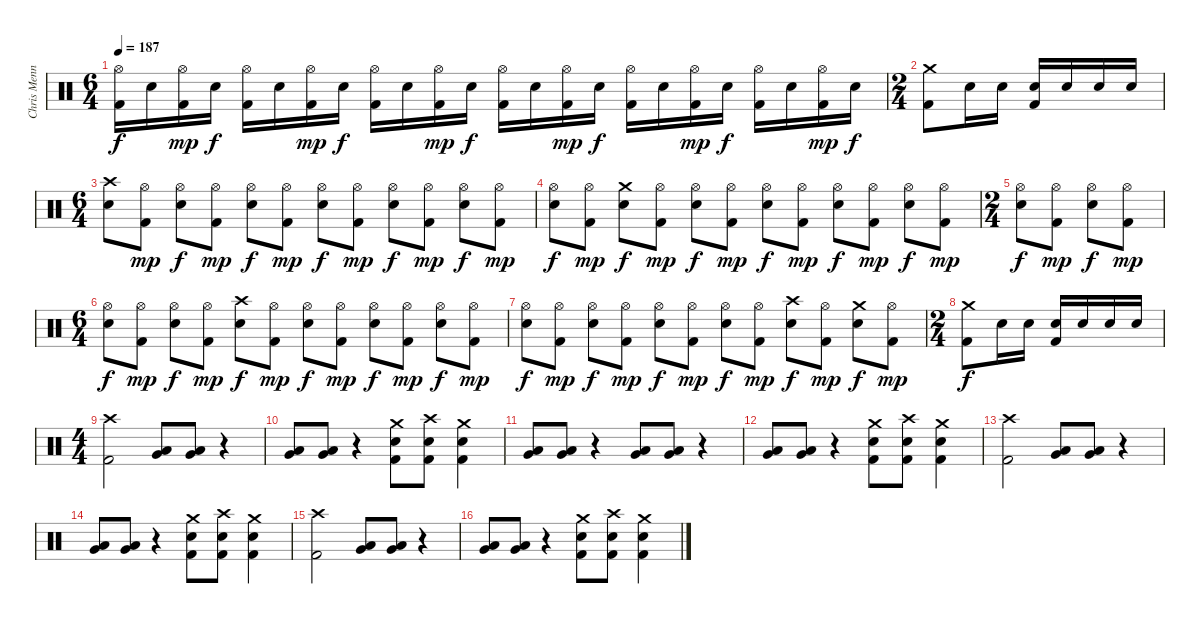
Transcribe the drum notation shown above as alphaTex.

\track ("Chris Menning" "Chris Menn") {instrument percussion}
\staff {score}
\articulation defaults
\ts (6 4)
\tempo 187
\clef neutral
\ks c
("Hi-Hat (open)" "Kick (hit) 2").16{dy f} "Electric Snare (hit)".16 ("Hi-Hat (open)" "Kick (hit) 2").16{dy mp} "Electric Snare (hit)".16{dy f} ("Hi-Hat (open)" "Kick (hit) 2").16 "Electric Snare (hit)".16 ("Hi-Hat (open)" "Kick (hit) 2").16{dy mp} "Electric Snare (hit)".16{dy f} ("Hi-Hat (open)" "Kick (hit) 2").16 "Electric Snare (hit)".16 ("Hi-Hat (open)" "Kick (hit) 2").16{dy mp} "Electric Snare (hit)".16{dy f} ("Hi-Hat (open)" "Kick (hit) 2").16 "Electric Snare (hit)".16 ("Hi-Hat (open)" "Kick (hit) 2").16{dy mp} "Electric Snare (hit)".16{dy f} ("Hi-Hat (open)" "Kick (hit) 2").16 "Electric Snare (hit)".16 ("Hi-Hat (open)" "Kick (hit) 2").16{dy mp} "Electric Snare (hit)".16{dy f} ("Hi-Hat (open)" "Kick (hit) 2").16 "Electric Snare (hit)".16 ("Hi-Hat (open)" "Kick (hit) 2").16{dy mp} "Electric Snare (hit)".16{dy f} |
\ts (2 4)
("Crash medium (hit)" "Kick (hit) 2").8 "Electric Snare (hit)".16 "Electric Snare (hit)".16 ("Electric Snare (hit)" "Kick (hit) 2").16 "Electric Snare (hit)".16 "Electric Snare (hit)".16 "Electric Snare (hit)".16 |
\ts (6 4)
("Crash high (hit)" "Electric Snare (hit)").8 ("Hi-Hat (open)" "Kick (hit) 2").8{dy mp} ("Hi-Hat (open)" "Electric Snare (hit)").8{dy f} ("Hi-Hat (open)" "Kick (hit) 2").8{dy mp} ("Hi-Hat (open)" "Electric Snare (hit)").8{dy f} ("Hi-Hat (open)" "Kick (hit) 2").8{dy mp} ("Hi-Hat (open)" "Electric Snare (hit)").8{dy f} ("Hi-Hat (open)" "Kick (hit) 2").8{dy mp} ("Hi-Hat (open)" "Electric Snare (hit)").8{dy f} ("Hi-Hat (open)" "Kick (hit) 2").8{dy mp} ("Hi-Hat (open)" "Electric Snare (hit)").8{dy f} ("Hi-Hat (open)" "Kick (hit) 2").8{dy mp} |
("Hi-Hat (open)" "Electric Snare (hit)").8{dy f} ("Hi-Hat (open)" "Kick (hit) 2").8{dy mp} ("Crash medium (hit)" "Electric Snare (hit)").8{dy f} ("Hi-Hat (open)" "Kick (hit) 2").8{dy mp} ("Hi-Hat (open)" "Electric Snare (hit)").8{dy f} ("Hi-Hat (open)" "Kick (hit) 2").8{dy mp} ("Hi-Hat (open)" "Electric Snare (hit)").8{dy f} ("Hi-Hat (open)" "Kick (hit) 2").8{dy mp} ("Hi-Hat (open)" "Electric Snare (hit)").8{dy f} ("Hi-Hat (open)" "Kick (hit) 2").8{dy mp} ("Hi-Hat (open)" "Electric Snare (hit)").8{dy f} ("Hi-Hat (open)" "Kick (hit) 2").8{dy mp} |
\ts (2 4)
("Hi-Hat (open)" "Electric Snare (hit)").8{dy f} ("Hi-Hat (open)" "Kick (hit) 2").8{dy mp} ("Hi-Hat (open)" "Electric Snare (hit)").8{dy f} ("Hi-Hat (open)" "Kick (hit) 2").8{dy mp} |
\ts (6 4)
("Hi-Hat (open)" "Electric Snare (hit)").8{dy f} ("Hi-Hat (open)" "Kick (hit) 2").8{dy mp} ("Hi-Hat (open)" "Electric Snare (hit)").8{dy f} ("Hi-Hat (open)" "Kick (hit) 2").8{dy mp} ("Crash high (hit)" "Electric Snare (hit)").8{dy f} ("Hi-Hat (open)" "Kick (hit) 2").8{dy mp} ("Hi-Hat (open)" "Electric Snare (hit)").8{dy f} ("Hi-Hat (open)" "Kick (hit) 2").8{dy mp} ("Hi-Hat (open)" "Electric Snare (hit)").8{dy f} ("Hi-Hat (open)" "Kick (hit) 2").8{dy mp} ("Hi-Hat (open)" "Electric Snare (hit)").8{dy f} ("Hi-Hat (open)" "Kick (hit) 2").8{dy mp} |
("Hi-Hat (open)" "Electric Snare (hit)").8{dy f} ("Hi-Hat (open)" "Kick (hit) 2").8{dy mp} ("Hi-Hat (open)" "Electric Snare (hit)").8{dy f} ("Hi-Hat (open)" "Kick (hit) 2").8{dy mp} ("Hi-Hat (open)" "Electric Snare (hit)").8{dy f} ("Hi-Hat (open)" "Kick (hit) 2").8{dy mp} ("Hi-Hat (open)" "Electric Snare (hit)").8{dy f} ("Hi-Hat (open)" "Kick (hit) 2").8{dy mp} ("Crash high (hit)" "Electric Snare (hit)").8{dy f} ("Hi-Hat (open)" "Kick (hit) 2").8{dy mp} ("Crash medium (hit)" "Electric Snare (hit)").8{dy f} ("Hi-Hat (open)" "Kick (hit) 2").8{dy mp} |
\ts (2 4)
("Crash medium (hit)" "Kick (hit) 2").8{dy f} "Electric Snare (hit)".16 "Electric Snare (hit)".16 ("Electric Snare (hit)" "Kick (hit) 2").16 "Electric Snare (hit)".16 "Electric Snare (hit)".16 "Electric Snare (hit)".16 |
\ts (4 4)
("Crash high (hit)" "Kick (hit) 2").2 ("Low Tom (hit)" "Very Low Tom (hit)").8 ("Low Tom (hit)" "Very Low Tom (hit)").8 r.4 |
("Low Tom (hit)" "Very Low Tom (hit)").8 ("Low Tom (hit)" "Very Low Tom (hit)").8 r.4 ("Crash medium (hit)" "Electric Snare (hit)" "Kick (hit) 2").8 ("Crash high (hit)" "Electric Snare (hit)" "Kick (hit) 2").8 ("Crash medium (hit)" "Electric Snare (hit)" "Kick (hit) 2").4 |
("Low Tom (hit)" "Very Low Tom (hit)").8 ("Low Tom (hit)" "Very Low Tom (hit)").8 r.4 ("Low Tom (hit)" "Very Low Tom (hit)").8 ("Low Tom (hit)" "Very Low Tom (hit)").8 r.4 |
("Low Tom (hit)" "Very Low Tom (hit)").8 ("Low Tom (hit)" "Very Low Tom (hit)").8 r.4 ("Crash medium (hit)" "Electric Snare (hit)" "Kick (hit) 2").8 ("Crash high (hit)" "Electric Snare (hit)" "Kick (hit) 2").8 ("Crash medium (hit)" "Electric Snare (hit)" "Kick (hit) 2").4 |
("Crash high (hit)" "Kick (hit) 2").2 ("Low Tom (hit)" "Very Low Tom (hit)").8 ("Low Tom (hit)" "Very Low Tom (hit)").8 r.4 |
("Low Tom (hit)" "Very Low Tom (hit)").8 ("Low Tom (hit)" "Very Low Tom (hit)").8 r.4 ("Crash medium (hit)" "Electric Snare (hit)" "Kick (hit) 2").8 ("Crash high (hit)" "Electric Snare (hit)" "Kick (hit) 2").8 ("Crash medium (hit)" "Electric Snare (hit)" "Kick (hit) 2").4 |
("Crash high (hit)" "Kick (hit) 2").2 ("Low Tom (hit)" "Very Low Tom (hit)").8 ("Low Tom (hit)" "Very Low Tom (hit)").8 r.4 |
("Low Tom (hit)" "Very Low Tom (hit)").8 ("Low Tom (hit)" "Very Low Tom (hit)").8 r.4 ("Crash medium (hit)" "Electric Snare (hit)" "Kick (hit) 2").8 ("Crash high (hit)" "Electric Snare (hit)" "Kick (hit) 2").8 ("Crash medium (hit)" "Electric Snare (hit)" "Kick (hit) 2").4
